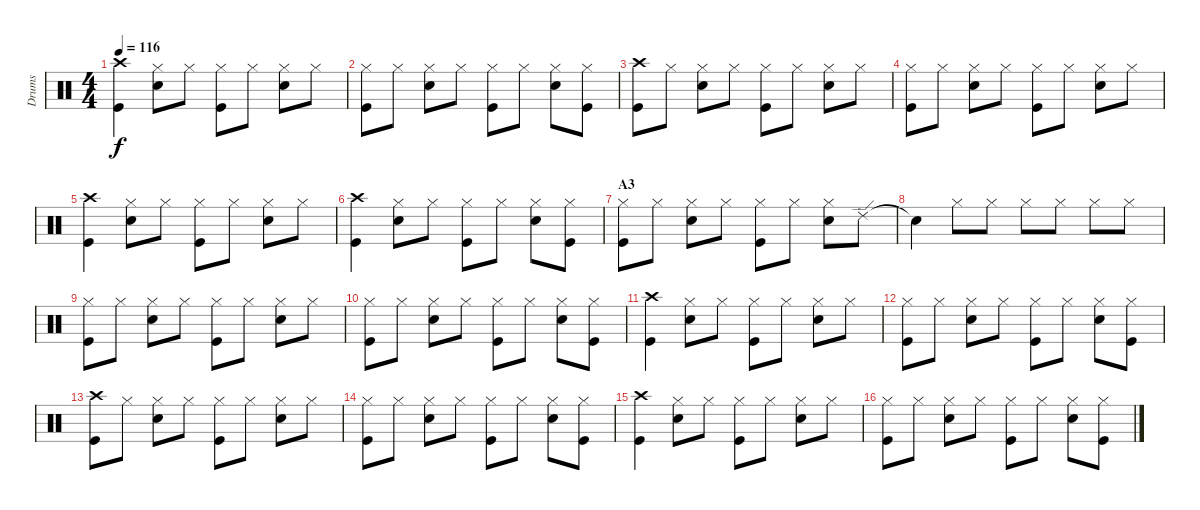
\track ("Drums" "Drums") {instrument percussion}
\staff {score}
\articulation defaults
\ts (4 4)
\tempo 116
\clef neutral
\ks c
("Crash high (hit)" "Kick (hit)").4{dy f} ("Hi-Hat (closed)" "Snare (hit) 2").8 "Hi-Hat (closed)".8 ("Hi-Hat (closed)" "Kick (hit)").8 "Hi-Hat (closed)".8 ("Hi-Hat (closed)" "Snare (hit) 2").8 "Hi-Hat (closed)".8 |
("Hi-Hat (closed)" "Kick (hit)").8 "Hi-Hat (closed)".8 ("Hi-Hat (closed)" "Snare (hit) 2").8 "Hi-Hat (closed)".8 ("Hi-Hat (closed)" "Kick (hit)").8 "Hi-Hat (closed)".8 ("Hi-Hat (closed)" "Snare (hit) 2").8 ("Hi-Hat (closed)" "Kick (hit)").8 |
("Crash high (hit)" "Kick (hit)").8 "Hi-Hat (closed)".8 ("Hi-Hat (closed)" "Snare (hit) 2").8 "Hi-Hat (closed)".8 ("Hi-Hat (closed)" "Kick (hit)").8 "Hi-Hat (closed)".8 ("Hi-Hat (closed)" "Snare (hit) 2").8 "Hi-Hat (closed)".8 |
("Hi-Hat (closed)" "Kick (hit)").8 "Hi-Hat (closed)".8 ("Hi-Hat (closed)" "Snare (hit) 2").8 "Hi-Hat (closed)".8 ("Hi-Hat (closed)" "Kick (hit)").8 "Hi-Hat (closed)".8 ("Hi-Hat (closed)" "Snare (hit) 2").8 "Hi-Hat (closed)".8 |
("Crash high (hit)" "Kick (hit)").4 ("Hi-Hat (closed)" "Snare (hit) 2").8 "Hi-Hat (closed)".8 ("Hi-Hat (closed)" "Kick (hit)").8 "Hi-Hat (closed)".8 ("Hi-Hat (closed)" "Snare (hit) 2").8 "Hi-Hat (closed)".8 |
("Crash high (hit)" "Kick (hit)").4 ("Hi-Hat (closed)" "Snare (hit) 2").8 "Hi-Hat (closed)".8 ("Hi-Hat (closed)" "Kick (hit)").8 "Hi-Hat (closed)".8 ("Hi-Hat (closed)" "Snare (hit) 2").8 ("Hi-Hat (closed)" "Kick (hit)").8 |
\section ("" "A3")
("Hi-Hat (closed)" "Kick (hit)").8 "Hi-Hat (closed)".8 ("Hi-Hat (closed)" "Snare (hit) 2").8 "Hi-Hat (closed)".8 ("Hi-Hat (closed)" "Kick (hit)").8 "Hi-Hat (closed)".8 ("Hi-Hat (closed)" "Snare (hit) 2").8 "Ride (edge) 2".8 |
"Snare (hit)"{t}.4 "Hi-Hat (closed)".8 "Hi-Hat (closed)".8 "Hi-Hat (closed)".8 "Hi-Hat (closed)".8 "Hi-Hat (closed)".8 "Hi-Hat (closed)".8 |
("Hi-Hat (closed)" "Kick (hit)").8 "Hi-Hat (closed)".8 ("Hi-Hat (closed)" "Snare (hit) 2").8 "Hi-Hat (closed)".8 ("Hi-Hat (closed)" "Kick (hit)").8 "Hi-Hat (closed)".8 ("Hi-Hat (closed)" "Snare (hit) 2").8 "Hi-Hat (closed)".8 |
("Hi-Hat (closed)" "Kick (hit)").8 "Hi-Hat (closed)".8 ("Hi-Hat (closed)" "Snare (hit) 2").8 "Hi-Hat (closed)".8 ("Hi-Hat (closed)" "Kick (hit)").8 "Hi-Hat (closed)".8 ("Hi-Hat (closed)" "Snare (hit) 2").8 ("Hi-Hat (closed)" "Kick (hit)").8 |
("Crash high (hit)" "Kick (hit)").4 ("Hi-Hat (closed)" "Snare (hit) 2").8 "Hi-Hat (closed)".8 ("Hi-Hat (closed)" "Kick (hit)").8 "Hi-Hat (closed)".8 ("Hi-Hat (closed)" "Snare (hit) 2").8 "Hi-Hat (closed)".8 |
("Hi-Hat (closed)" "Kick (hit)").8 "Hi-Hat (closed)".8 ("Hi-Hat (closed)" "Snare (hit) 2").8 "Hi-Hat (closed)".8 ("Hi-Hat (closed)" "Kick (hit)").8 "Hi-Hat (closed)".8 ("Hi-Hat (closed)" "Snare (hit) 2").8 ("Hi-Hat (closed)" "Kick (hit)").8 |
("Crash high (hit)" "Kick (hit)").8 "Hi-Hat (closed)".8 ("Hi-Hat (closed)" "Snare (hit) 2").8 "Hi-Hat (closed)".8 ("Hi-Hat (closed)" "Kick (hit)").8 "Hi-Hat (closed)".8 ("Hi-Hat (closed)" "Snare (hit) 2").8 "Hi-Hat (closed)".8 |
("Hi-Hat (closed)" "Kick (hit)").8 "Hi-Hat (closed)".8 ("Hi-Hat (closed)" "Snare (hit) 2").8 "Hi-Hat (closed)".8 ("Hi-Hat (closed)" "Kick (hit)").8 "Hi-Hat (closed)".8 ("Hi-Hat (closed)" "Snare (hit) 2").8 ("Hi-Hat (closed)" "Kick (hit)").8 |
("Crash high (hit)" "Kick (hit)").4 ("Hi-Hat (closed)" "Snare (hit) 2").8 "Hi-Hat (closed)".8 ("Hi-Hat (closed)" "Kick (hit)").8 "Hi-Hat (closed)".8 ("Hi-Hat (closed)" "Snare (hit) 2").8 "Hi-Hat (closed)".8 |
("Hi-Hat (closed)" "Kick (hit)").8 "Hi-Hat (closed)".8 ("Hi-Hat (closed)" "Snare (hit) 2").8 "Hi-Hat (closed)".8 ("Hi-Hat (closed)" "Kick (hit)").8 "Hi-Hat (closed)".8 ("Hi-Hat (closed)" "Snare (hit) 2").8 ("Hi-Hat (closed)" "Kick (hit)").8
